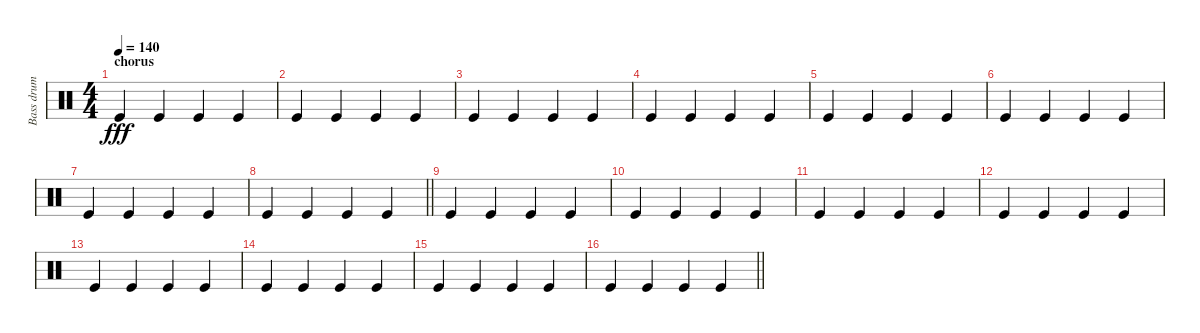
\track ("Bass drum " "Bass drum ") {instrument percussion}
\staff {score}
\articulation defaults
\ts (4 4)
\section ("" "chorus ")
\tempo 140
\clef neutral
\ks c "Kick (hit)".4{dy fff} "Kick (hit)".4 "Kick (hit)".4 "Kick (hit)".4
|
"Kick (hit)".4 "Kick (hit)".4 "Kick (hit)".4 "Kick (hit)".4 |
"Kick (hit)".4 "Kick (hit)".4 "Kick (hit)".4 "Kick (hit)".4 |
"Kick (hit)".4 "Kick (hit)".4 "Kick (hit)".4 "Kick (hit)".4 |
"Kick (hit)".4 "Kick (hit)".4 "Kick (hit)".4 "Kick (hit)".4 |
"Kick (hit)".4 "Kick (hit)".4 "Kick (hit)".4 "Kick (hit)".4 |
"Kick (hit)".4 "Kick (hit)".4 "Kick (hit)".4 "Kick (hit)".4 |
\barLineRight lightlight "Kick (hit)".4 "Kick (hit)".4 "Kick (hit)".4 "Kick (hit)".4
|
"Kick (hit)".4 "Kick (hit)".4 "Kick (hit)".4 "Kick (hit)".4 |
"Kick (hit)".4 "Kick (hit)".4 "Kick (hit)".4 "Kick (hit)".4 |
"Kick (hit)".4 "Kick (hit)".4 "Kick (hit)".4 "Kick (hit)".4 |
"Kick (hit)".4 "Kick (hit)".4 "Kick (hit)".4 "Kick (hit)".4 |
"Kick (hit)".4 "Kick (hit)".4 "Kick (hit)".4 "Kick (hit)".4 |
"Kick (hit)".4 "Kick (hit)".4 "Kick (hit)".4 "Kick (hit)".4 |
"Kick (hit)".4 "Kick (hit)".4 "Kick (hit)".4 "Kick (hit)".4 |
\barLineRight lightlight "Kick (hit)".4 "Kick (hit)".4 "Kick (hit)".4 "Kick (hit)".4
